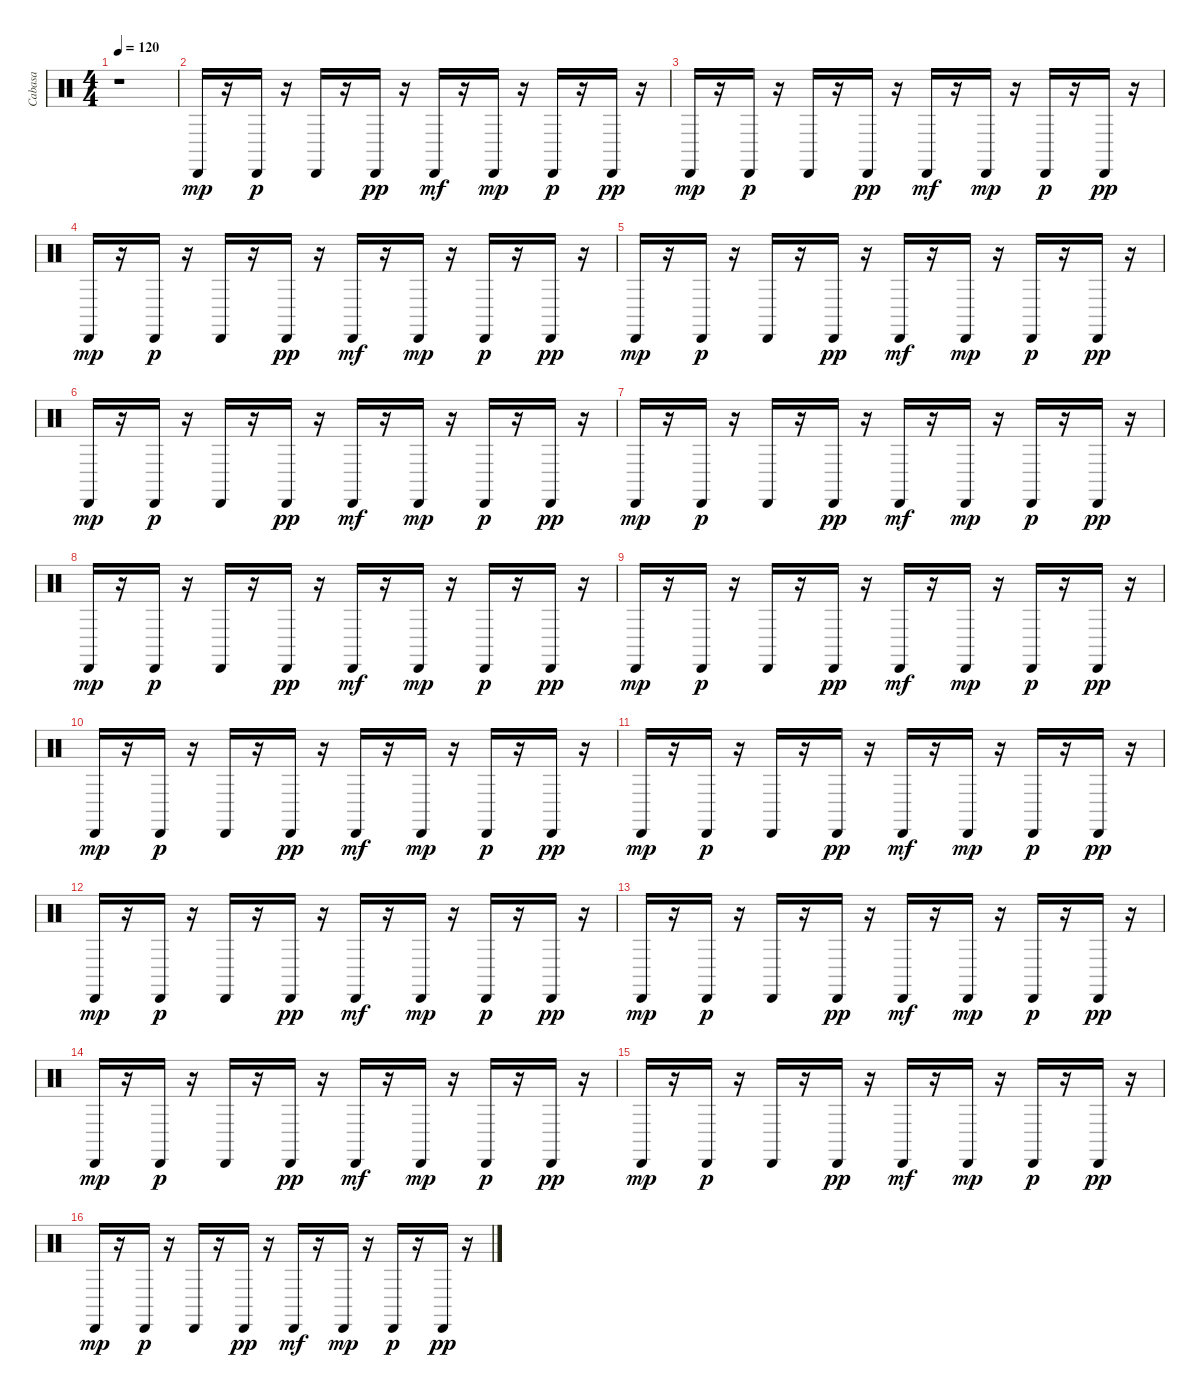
\track ("Cabasa" "Cabasa") {instrument percussion}
\staff {score}
\articulation defaults
\ts (4 4)
\tempo 120
\clef neutral
\ks c
r.1{dy pp} |
"Cabasa (hit)".16{dy mp} r.16 "Cabasa (hit)".16{dy p} r.16 "Cabasa (hit)".16 r.16 "Cabasa (hit)".16{dy pp} r.16 "Cabasa (hit)".16{dy mf} r.16 "Cabasa (hit)".16{dy mp} r.16 "Cabasa (hit)".16{dy p} r.16 "Cabasa (hit)".16{dy pp} r.16 |
"Cabasa (hit)".16{dy mp} r.16 "Cabasa (hit)".16{dy p} r.16 "Cabasa (hit)".16 r.16 "Cabasa (hit)".16{dy pp} r.16 "Cabasa (hit)".16{dy mf} r.16 "Cabasa (hit)".16{dy mp} r.16 "Cabasa (hit)".16{dy p} r.16 "Cabasa (hit)".16{dy pp} r.16 |
"Cabasa (hit)".16{dy mp} r.16 "Cabasa (hit)".16{dy p} r.16 "Cabasa (hit)".16 r.16 "Cabasa (hit)".16{dy pp} r.16 "Cabasa (hit)".16{dy mf} r.16 "Cabasa (hit)".16{dy mp} r.16 "Cabasa (hit)".16{dy p} r.16 "Cabasa (hit)".16{dy pp} r.16 |
"Cabasa (hit)".16{dy mp} r.16 "Cabasa (hit)".16{dy p} r.16 "Cabasa (hit)".16 r.16 "Cabasa (hit)".16{dy pp} r.16 "Cabasa (hit)".16{dy mf} r.16 "Cabasa (hit)".16{dy mp} r.16 "Cabasa (hit)".16{dy p} r.16 "Cabasa (hit)".16{dy pp} r.16 |
"Cabasa (hit)".16{dy mp} r.16 "Cabasa (hit)".16{dy p} r.16 "Cabasa (hit)".16 r.16 "Cabasa (hit)".16{dy pp} r.16 "Cabasa (hit)".16{dy mf} r.16 "Cabasa (hit)".16{dy mp} r.16 "Cabasa (hit)".16{dy p} r.16 "Cabasa (hit)".16{dy pp} r.16 |
"Cabasa (hit)".16{dy mp} r.16 "Cabasa (hit)".16{dy p} r.16 "Cabasa (hit)".16 r.16 "Cabasa (hit)".16{dy pp} r.16 "Cabasa (hit)".16{dy mf} r.16 "Cabasa (hit)".16{dy mp} r.16 "Cabasa (hit)".16{dy p} r.16 "Cabasa (hit)".16{dy pp} r.16 |
"Cabasa (hit)".16{dy mp} r.16 "Cabasa (hit)".16{dy p} r.16 "Cabasa (hit)".16 r.16 "Cabasa (hit)".16{dy pp} r.16 "Cabasa (hit)".16{dy mf} r.16 "Cabasa (hit)".16{dy mp} r.16 "Cabasa (hit)".16{dy p} r.16 "Cabasa (hit)".16{dy pp} r.16 |
"Cabasa (hit)".16{dy mp} r.16 "Cabasa (hit)".16{dy p} r.16 "Cabasa (hit)".16 r.16 "Cabasa (hit)".16{dy pp} r.16 "Cabasa (hit)".16{dy mf} r.16 "Cabasa (hit)".16{dy mp} r.16 "Cabasa (hit)".16{dy p} r.16 "Cabasa (hit)".16{dy pp} r.16 |
"Cabasa (hit)".16{dy mp} r.16 "Cabasa (hit)".16{dy p} r.16 "Cabasa (hit)".16 r.16 "Cabasa (hit)".16{dy pp} r.16 "Cabasa (hit)".16{dy mf} r.16 "Cabasa (hit)".16{dy mp} r.16 "Cabasa (hit)".16{dy p} r.16 "Cabasa (hit)".16{dy pp} r.16 |
"Cabasa (hit)".16{dy mp} r.16 "Cabasa (hit)".16{dy p} r.16 "Cabasa (hit)".16 r.16 "Cabasa (hit)".16{dy pp} r.16 "Cabasa (hit)".16{dy mf} r.16 "Cabasa (hit)".16{dy mp} r.16 "Cabasa (hit)".16{dy p} r.16 "Cabasa (hit)".16{dy pp} r.16 |
"Cabasa (hit)".16{dy mp} r.16 "Cabasa (hit)".16{dy p} r.16 "Cabasa (hit)".16 r.16 "Cabasa (hit)".16{dy pp} r.16 "Cabasa (hit)".16{dy mf} r.16 "Cabasa (hit)".16{dy mp} r.16 "Cabasa (hit)".16{dy p} r.16 "Cabasa (hit)".16{dy pp} r.16 |
"Cabasa (hit)".16{dy mp} r.16 "Cabasa (hit)".16{dy p} r.16 "Cabasa (hit)".16 r.16 "Cabasa (hit)".16{dy pp} r.16 "Cabasa (hit)".16{dy mf} r.16 "Cabasa (hit)".16{dy mp} r.16 "Cabasa (hit)".16{dy p} r.16 "Cabasa (hit)".16{dy pp} r.16 |
"Cabasa (hit)".16{dy mp} r.16 "Cabasa (hit)".16{dy p} r.16 "Cabasa (hit)".16 r.16 "Cabasa (hit)".16{dy pp} r.16 "Cabasa (hit)".16{dy mf} r.16 "Cabasa (hit)".16{dy mp} r.16 "Cabasa (hit)".16{dy p} r.16 "Cabasa (hit)".16{dy pp} r.16 |
"Cabasa (hit)".16{dy mp} r.16 "Cabasa (hit)".16{dy p} r.16 "Cabasa (hit)".16 r.16 "Cabasa (hit)".16{dy pp} r.16 "Cabasa (hit)".16{dy mf} r.16 "Cabasa (hit)".16{dy mp} r.16 "Cabasa (hit)".16{dy p} r.16 "Cabasa (hit)".16{dy pp} r.16 |
"Cabasa (hit)".16{dy mp} r.16 "Cabasa (hit)".16{dy p} r.16 "Cabasa (hit)".16 r.16 "Cabasa (hit)".16{dy pp} r.16 "Cabasa (hit)".16{dy mf} r.16 "Cabasa (hit)".16{dy mp} r.16 "Cabasa (hit)".16{dy p} r.16 "Cabasa (hit)".16{dy pp} r.16
